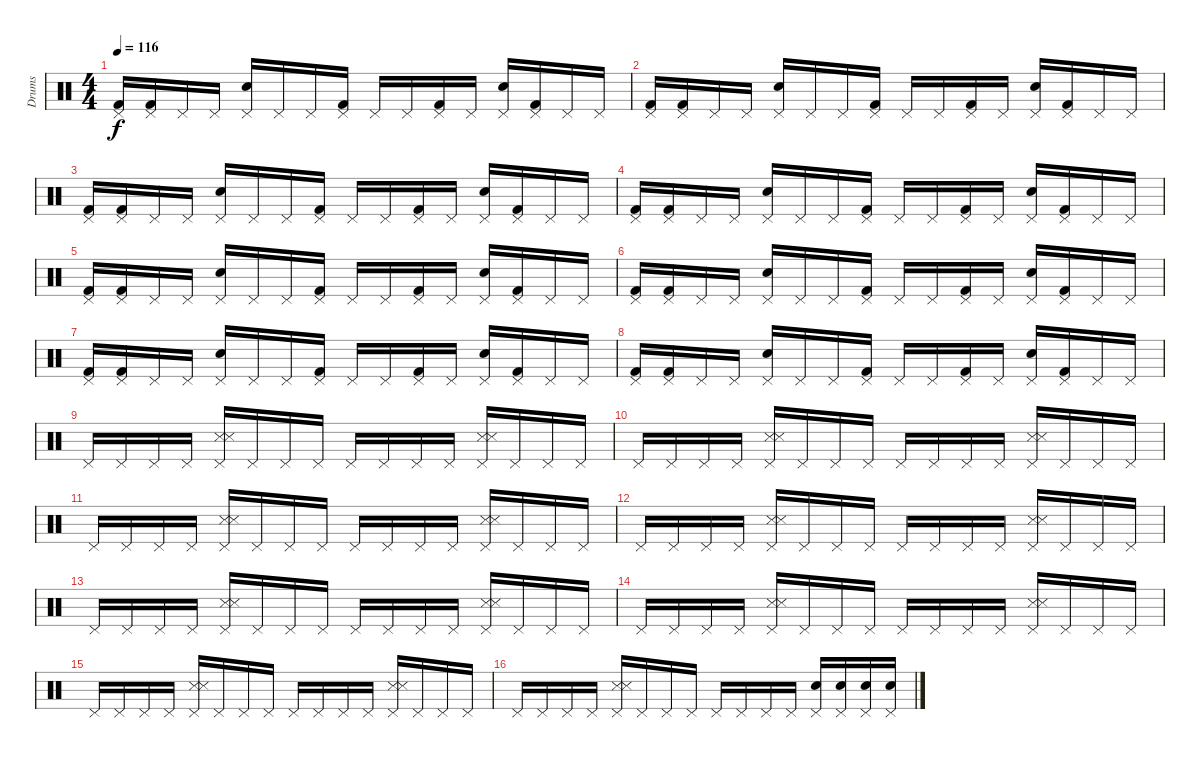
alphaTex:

\track ("Drums" "Drums") {instrument percussion}
\staff {score}
\articulation defaults
\ts (4 4)
\tempo 116
\clef neutral
\ks c
("Pedal Hi-Hat (hit)" "Kick (hit) 2").16{dy f} ("Pedal Hi-Hat (hit)" "Kick (hit) 2").16 "Pedal Hi-Hat (hit)".16 "Pedal Hi-Hat (hit)".16 ("Snare (hit) 2" "Pedal Hi-Hat (hit)").16 "Pedal Hi-Hat (hit)".16 "Pedal Hi-Hat (hit)".16 ("Pedal Hi-Hat (hit)" "Kick (hit) 2").16 "Pedal Hi-Hat (hit)".16 "Pedal Hi-Hat (hit)".16 ("Kick (hit) 2" "Pedal Hi-Hat (hit)").16 "Pedal Hi-Hat (hit)".16 ("Snare (hit) 2" "Pedal Hi-Hat (hit)").16 ("Pedal Hi-Hat (hit)" "Kick (hit) 2").16 "Pedal Hi-Hat (hit)".16 "Pedal Hi-Hat (hit)".16 |
("Pedal Hi-Hat (hit)" "Kick (hit) 2").16 ("Pedal Hi-Hat (hit)" "Kick (hit) 2").16 "Pedal Hi-Hat (hit)".16 "Pedal Hi-Hat (hit)".16 ("Pedal Hi-Hat (hit)" "Snare (hit) 2").16 "Pedal Hi-Hat (hit)".16 "Pedal Hi-Hat (hit)".16 ("Pedal Hi-Hat (hit)" "Kick (hit) 2").16 "Pedal Hi-Hat (hit)".16 "Pedal Hi-Hat (hit)".16 ("Kick (hit) 2" "Pedal Hi-Hat (hit)").16 "Pedal Hi-Hat (hit)".16 ("Pedal Hi-Hat (hit)" "Snare (hit) 2").16 ("Kick (hit) 2" "Pedal Hi-Hat (hit)").16 "Pedal Hi-Hat (hit)".16 "Pedal Hi-Hat (hit)".16 |
("Kick (hit) 2" "Pedal Hi-Hat (hit)").16 ("Pedal Hi-Hat (hit)" "Kick (hit) 2").16 "Pedal Hi-Hat (hit)".16 "Pedal Hi-Hat (hit)".16 ("Pedal Hi-Hat (hit)" "Snare (hit) 2").16 "Pedal Hi-Hat (hit)".16 "Pedal Hi-Hat (hit)".16 ("Pedal Hi-Hat (hit)" "Kick (hit) 2").16 "Pedal Hi-Hat (hit)".16 "Pedal Hi-Hat (hit)".16 ("Pedal Hi-Hat (hit)" "Kick (hit) 2").16 "Pedal Hi-Hat (hit)".16 ("Snare (hit) 2" "Pedal Hi-Hat (hit)").16 ("Pedal Hi-Hat (hit)" "Kick (hit) 2").16 "Pedal Hi-Hat (hit)".16 "Pedal Hi-Hat (hit)".16 |
("Kick (hit) 2" "Pedal Hi-Hat (hit)").16 ("Kick (hit) 2" "Pedal Hi-Hat (hit)").16 "Pedal Hi-Hat (hit)".16 "Pedal Hi-Hat (hit)".16 ("Pedal Hi-Hat (hit)" "Snare (hit) 2").16 "Pedal Hi-Hat (hit)".16 "Pedal Hi-Hat (hit)".16 ("Kick (hit) 2" "Pedal Hi-Hat (hit)").16 "Pedal Hi-Hat (hit)".16 "Pedal Hi-Hat (hit)".16 ("Pedal Hi-Hat (hit)" "Kick (hit) 2").16 "Pedal Hi-Hat (hit)".16 ("Pedal Hi-Hat (hit)" "Snare (hit) 2").16 ("Pedal Hi-Hat (hit)" "Kick (hit) 2").16 "Pedal Hi-Hat (hit)".16 "Pedal Hi-Hat (hit)".16 |
("Kick (hit) 2" "Pedal Hi-Hat (hit)").16 ("Pedal Hi-Hat (hit)" "Kick (hit) 2").16 "Pedal Hi-Hat (hit)".16 "Pedal Hi-Hat (hit)".16 ("Snare (hit) 2" "Pedal Hi-Hat (hit)").16 "Pedal Hi-Hat (hit)".16 "Pedal Hi-Hat (hit)".16 ("Pedal Hi-Hat (hit)" "Kick (hit) 2").16 "Pedal Hi-Hat (hit)".16 "Pedal Hi-Hat (hit)".16 ("Pedal Hi-Hat (hit)" "Kick (hit) 2").16 "Pedal Hi-Hat (hit)".16 ("Pedal Hi-Hat (hit)" "Snare (hit) 2").16 ("Kick (hit) 2" "Pedal Hi-Hat (hit)").16 "Pedal Hi-Hat (hit)".16 "Pedal Hi-Hat (hit)".16 |
("Pedal Hi-Hat (hit)" "Kick (hit) 2").16 ("Pedal Hi-Hat (hit)" "Kick (hit) 2").16 "Pedal Hi-Hat (hit)".16 "Pedal Hi-Hat (hit)".16 ("Snare (hit) 2" "Pedal Hi-Hat (hit)").16 "Pedal Hi-Hat (hit)".16 "Pedal Hi-Hat (hit)".16 ("Kick (hit) 2" "Pedal Hi-Hat (hit)").16 "Pedal Hi-Hat (hit)".16 "Pedal Hi-Hat (hit)".16 ("Pedal Hi-Hat (hit)" "Kick (hit) 2").16 "Pedal Hi-Hat (hit)".16 ("Snare (hit) 2" "Pedal Hi-Hat (hit)").16 ("Kick (hit) 2" "Pedal Hi-Hat (hit)").16 "Pedal Hi-Hat (hit)".16 "Pedal Hi-Hat (hit)".16 |
("Pedal Hi-Hat (hit)" "Kick (hit) 2").16 ("Kick (hit) 2" "Pedal Hi-Hat (hit)").16 "Pedal Hi-Hat (hit)".16 "Pedal Hi-Hat (hit)".16 ("Pedal Hi-Hat (hit)" "Snare (hit) 2").16 "Pedal Hi-Hat (hit)".16 "Pedal Hi-Hat (hit)".16 ("Pedal Hi-Hat (hit)" "Kick (hit) 2").16 "Pedal Hi-Hat (hit)".16 "Pedal Hi-Hat (hit)".16 ("Pedal Hi-Hat (hit)" "Kick (hit) 2").16 "Pedal Hi-Hat (hit)".16 ("Snare (hit) 2" "Pedal Hi-Hat (hit)").16 ("Kick (hit) 2" "Pedal Hi-Hat (hit)").16 "Pedal Hi-Hat (hit)".16 "Pedal Hi-Hat (hit)".16 |
("Pedal Hi-Hat (hit)" "Kick (hit) 2").16 ("Kick (hit) 2" "Pedal Hi-Hat (hit)").16 "Pedal Hi-Hat (hit)".16 "Pedal Hi-Hat (hit)".16 ("Pedal Hi-Hat (hit)" "Snare (hit) 2").16 "Pedal Hi-Hat (hit)".16 "Pedal Hi-Hat (hit)".16 ("Pedal Hi-Hat (hit)" "Kick (hit) 2").16 "Pedal Hi-Hat (hit)".16 "Pedal Hi-Hat (hit)".16 ("Kick (hit) 2" "Pedal Hi-Hat (hit)").16 "Pedal Hi-Hat (hit)".16 ("Snare (hit) 2" "Pedal Hi-Hat (hit)").16 ("Kick (hit) 2" "Pedal Hi-Hat (hit)").16 "Pedal Hi-Hat (hit)".16 "Pedal Hi-Hat (hit)".16 |
"Pedal Hi-Hat (hit)".16 "Pedal Hi-Hat (hit)".16 "Pedal Hi-Hat (hit)".16 "Pedal Hi-Hat (hit)".16 ("Metronome (hit)" "Snare (side stick) 3" "Pedal Hi-Hat (hit)").16 "Pedal Hi-Hat (hit)".16 "Pedal Hi-Hat (hit)".16 "Pedal Hi-Hat (hit)".16 "Pedal Hi-Hat (hit)".16 "Pedal Hi-Hat (hit)".16 "Pedal Hi-Hat (hit)".16 "Pedal Hi-Hat (hit)".16 ("Snare (side stick) 3" "Pedal Hi-Hat (hit)" "Metronome (hit)").16 "Pedal Hi-Hat (hit)".16 "Pedal Hi-Hat (hit)".16 "Pedal Hi-Hat (hit)".16 |
"Pedal Hi-Hat (hit)".16 "Pedal Hi-Hat (hit)".16 "Pedal Hi-Hat (hit)".16 "Pedal Hi-Hat (hit)".16 ("Metronome (hit)" "Snare (side stick) 3" "Pedal Hi-Hat (hit)").16 "Pedal Hi-Hat (hit)".16 "Pedal Hi-Hat (hit)".16 "Pedal Hi-Hat (hit)".16 "Pedal Hi-Hat (hit)".16 "Pedal Hi-Hat (hit)".16 "Pedal Hi-Hat (hit)".16 "Pedal Hi-Hat (hit)".16 ("Pedal Hi-Hat (hit)" "Snare (side stick) 3" "Metronome (hit)").16 "Pedal Hi-Hat (hit)".16 "Pedal Hi-Hat (hit)".16 "Pedal Hi-Hat (hit)".16 |
"Pedal Hi-Hat (hit)".16 "Pedal Hi-Hat (hit)".16 "Pedal Hi-Hat (hit)".16 "Pedal Hi-Hat (hit)".16 ("Pedal Hi-Hat (hit)" "Snare (side stick) 3" "Metronome (hit)").16 "Pedal Hi-Hat (hit)".16 "Pedal Hi-Hat (hit)".16 "Pedal Hi-Hat (hit)".16 "Pedal Hi-Hat (hit)".16 "Pedal Hi-Hat (hit)".16 "Pedal Hi-Hat (hit)".16 "Pedal Hi-Hat (hit)".16 ("Snare (side stick) 3" "Pedal Hi-Hat (hit)" "Metronome (hit)").16 "Pedal Hi-Hat (hit)".16 "Pedal Hi-Hat (hit)".16 "Pedal Hi-Hat (hit)".16 |
"Pedal Hi-Hat (hit)".16 "Pedal Hi-Hat (hit)".16 "Pedal Hi-Hat (hit)".16 "Pedal Hi-Hat (hit)".16 ("Metronome (hit)" "Snare (side stick) 3" "Pedal Hi-Hat (hit)").16 "Pedal Hi-Hat (hit)".16 "Pedal Hi-Hat (hit)".16 "Pedal Hi-Hat (hit)".16 "Pedal Hi-Hat (hit)".16 "Pedal Hi-Hat (hit)".16 "Pedal Hi-Hat (hit)".16 "Pedal Hi-Hat (hit)".16 ("Metronome (hit)" "Pedal Hi-Hat (hit)" "Snare (side stick) 3").16 "Pedal Hi-Hat (hit)".16 "Pedal Hi-Hat (hit)".16 "Pedal Hi-Hat (hit)".16 |
"Pedal Hi-Hat (hit)".16 "Pedal Hi-Hat (hit)".16 "Pedal Hi-Hat (hit)".16 "Pedal Hi-Hat (hit)".16 ("Snare (side stick) 3" "Metronome (hit)" "Pedal Hi-Hat (hit)").16 "Pedal Hi-Hat (hit)".16 "Pedal Hi-Hat (hit)".16 "Pedal Hi-Hat (hit)".16 "Pedal Hi-Hat (hit)".16 "Pedal Hi-Hat (hit)".16 "Pedal Hi-Hat (hit)".16 "Pedal Hi-Hat (hit)".16 ("Metronome (hit)" "Snare (side stick) 3" "Pedal Hi-Hat (hit)").16 "Pedal Hi-Hat (hit)".16 "Pedal Hi-Hat (hit)".16 "Pedal Hi-Hat (hit)".16 |
"Pedal Hi-Hat (hit)".16 "Pedal Hi-Hat (hit)".16 "Pedal Hi-Hat (hit)".16 "Pedal Hi-Hat (hit)".16 ("Metronome (hit)" "Snare (side stick) 3" "Pedal Hi-Hat (hit)").16 "Pedal Hi-Hat (hit)".16 "Pedal Hi-Hat (hit)".16 "Pedal Hi-Hat (hit)".16 "Pedal Hi-Hat (hit)".16 "Pedal Hi-Hat (hit)".16 "Pedal Hi-Hat (hit)".16 "Pedal Hi-Hat (hit)".16 ("Pedal Hi-Hat (hit)" "Metronome (hit)" "Snare (side stick) 3").16 "Pedal Hi-Hat (hit)".16 "Pedal Hi-Hat (hit)".16 "Pedal Hi-Hat (hit)".16 |
"Pedal Hi-Hat (hit)".16 "Pedal Hi-Hat (hit)".16 "Pedal Hi-Hat (hit)".16 "Pedal Hi-Hat (hit)".16 ("Metronome (hit)" "Pedal Hi-Hat (hit)" "Snare (side stick) 3").16 "Pedal Hi-Hat (hit)".16 "Pedal Hi-Hat (hit)".16 "Pedal Hi-Hat (hit)".16 "Pedal Hi-Hat (hit)".16 "Pedal Hi-Hat (hit)".16 "Pedal Hi-Hat (hit)".16 "Pedal Hi-Hat (hit)".16 ("Metronome (hit)" "Snare (side stick) 3" "Pedal Hi-Hat (hit)").16 "Pedal Hi-Hat (hit)".16 "Pedal Hi-Hat (hit)".16 "Pedal Hi-Hat (hit)".16 |
"Pedal Hi-Hat (hit)".16 "Pedal Hi-Hat (hit)".16 "Pedal Hi-Hat (hit)".16 "Pedal Hi-Hat (hit)".16 ("Pedal Hi-Hat (hit)" "Snare (side stick) 3" "Metronome (hit)").16 "Pedal Hi-Hat (hit)".16 "Pedal Hi-Hat (hit)".16 "Pedal Hi-Hat (hit)".16 "Pedal Hi-Hat (hit)".16 "Pedal Hi-Hat (hit)".16 "Pedal Hi-Hat (hit)".16 "Pedal Hi-Hat (hit)".16 ("Snare (hit) 2" "Pedal Hi-Hat (hit)").16 ("Pedal Hi-Hat (hit)" "Snare (hit) 2").16 ("Snare (hit) 2" "Pedal Hi-Hat (hit)").16 ("Pedal Hi-Hat (hit)" "Snare (hit) 2").16
